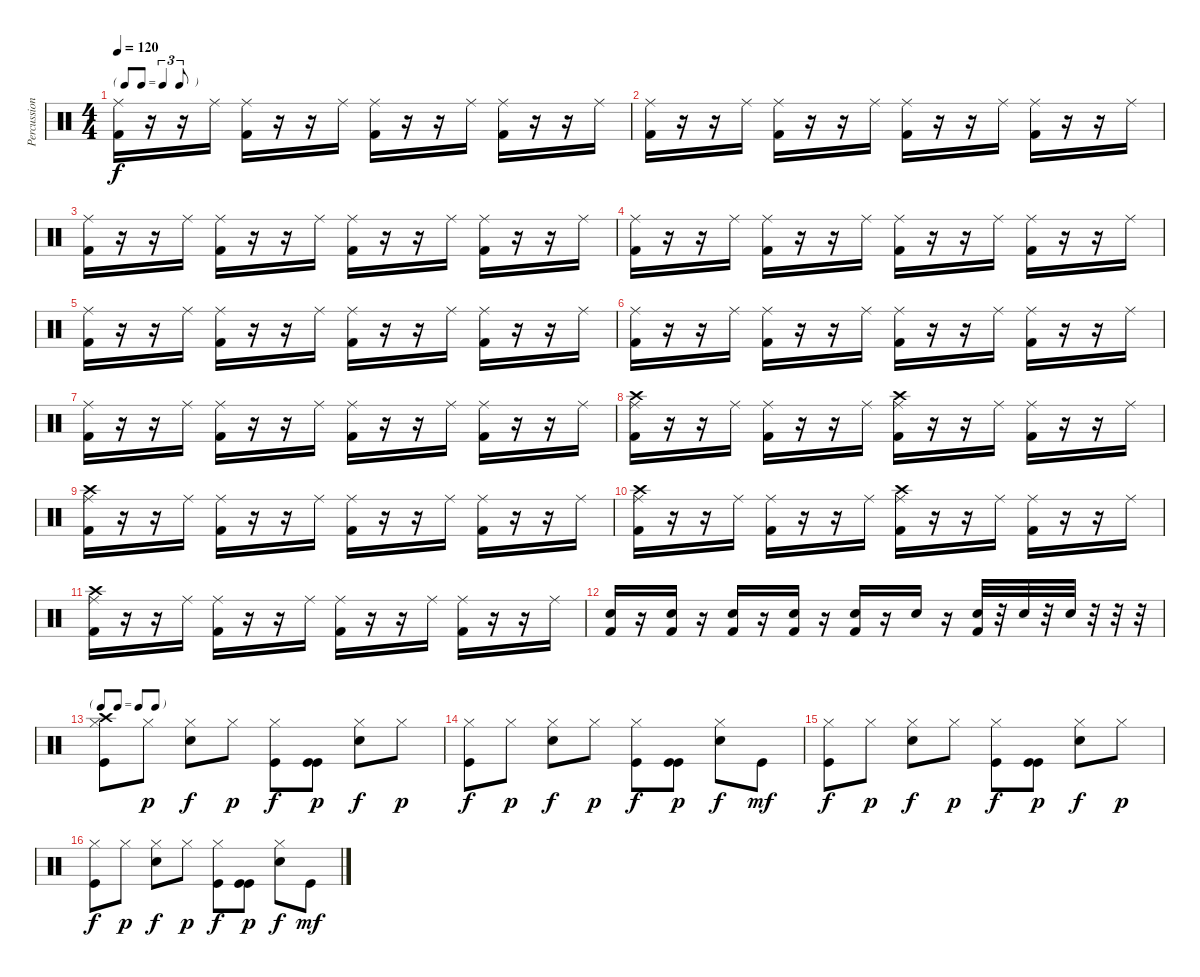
\track ("Percussions" "Percussion") {instrument percussion}
\staff {score}
\articulation defaults
\ts (4 4)
\tf triplet8th
\tempo 120
\clef neutral
\ks c
("Ride (middle)" "Kick (hit) 2").16{dy f} r.16 r.16 "Ride (middle)".16 ("Ride (middle)" "Kick (hit) 2").16 r.16 r.16 "Ride (middle)".16 ("Ride (middle)" "Kick (hit) 2").16 r.16 r.16 "Ride (middle)".16 ("Ride (middle)" "Kick (hit) 2").16 r.16 r.16 "Ride (middle)".16 |
("Ride (middle)" "Kick (hit) 2").16 r.16 r.16 "Ride (middle)".16 ("Ride (middle)" "Kick (hit) 2").16 r.16 r.16 "Ride (middle)".16 ("Ride (middle)" "Kick (hit) 2").16 r.16 r.16 "Ride (middle)".16 ("Ride (middle)" "Kick (hit) 2").16 r.16 r.16 "Ride (middle)".16 |
("Ride (middle)" "Kick (hit) 2").16 r.16 r.16 "Ride (middle)".16 ("Ride (middle)" "Kick (hit) 2").16 r.16 r.16 "Ride (middle)".16 ("Ride (middle)" "Kick (hit) 2").16 r.16 r.16 "Ride (middle)".16 ("Ride (middle)" "Kick (hit) 2").16 r.16 r.16 "Ride (middle)".16 |
("Ride (middle)" "Kick (hit) 2").16 r.16 r.16 "Ride (middle)".16 ("Ride (middle)" "Kick (hit) 2").16 r.16 r.16 "Ride (middle)".16 ("Ride (middle)" "Kick (hit) 2").16 r.16 r.16 "Ride (middle)".16 ("Ride (middle)" "Kick (hit) 2").16 r.16 r.16 "Ride (middle)".16 |
("Ride (middle)" "Kick (hit) 2").16 r.16 r.16 "Ride (middle)".16 ("Ride (middle)" "Kick (hit) 2").16 r.16 r.16 "Ride (middle)".16 ("Ride (middle)" "Kick (hit) 2").16 r.16 r.16 "Ride (middle)".16 ("Ride (middle)" "Kick (hit) 2").16 r.16 r.16 "Ride (middle)".16 |
("Ride (middle)" "Kick (hit) 2").16 r.16 r.16 "Ride (middle)".16 ("Ride (middle)" "Kick (hit) 2").16 r.16 r.16 "Ride (middle)".16 ("Ride (middle)" "Kick (hit) 2").16 r.16 r.16 "Ride (middle)".16 ("Ride (middle)" "Kick (hit) 2").16 r.16 r.16 "Ride (middle)".16 |
("Ride (middle)" "Kick (hit) 2").16 r.16 r.16 "Ride (middle)".16 ("Ride (middle)" "Kick (hit) 2").16 r.16 r.16 "Ride (middle)".16 ("Ride (middle)" "Kick (hit) 2").16 r.16 r.16 "Ride (middle)".16 ("Ride (middle)" "Kick (hit) 2").16 r.16 r.16 "Ride (middle)".16 |
("Crash high (hit)" "Ride (middle)" "Kick (hit) 2").16 r.16 r.16 "Ride (middle)".16 ("Ride (middle)" "Kick (hit) 2").16 r.16 r.16 "Ride (middle)".16 ("Crash high (hit)" "Ride (middle)" "Kick (hit) 2").16 r.16 r.16 "Ride (middle)".16 ("Ride (middle)" "Kick (hit) 2").16 r.16 r.16 "Ride (middle)".16 |
("Crash high (hit)" "Ride (middle)" "Kick (hit) 2").16 r.16 r.16 "Ride (middle)".16 ("Ride (middle)" "Kick (hit) 2").16 r.16 r.16 "Ride (middle)".16 ("Ride (middle)" "Kick (hit) 2").16 r.16 r.16 "Ride (middle)".16 ("Ride (middle)" "Kick (hit) 2").16 r.16 r.16 "Ride (middle)".16 |
("Crash high (hit)" "Ride (middle)" "Kick (hit) 2").16 r.16 r.16 "Ride (middle)".16 ("Ride (middle)" "Kick (hit) 2").16 r.16 r.16 "Ride (middle)".16 ("Crash high (hit)" "Ride (middle)" "Kick (hit) 2").16 r.16 r.16 "Ride (middle)".16 ("Ride (middle)" "Kick (hit) 2").16 r.16 r.16 "Ride (middle)".16 |
("Crash high (hit)" "Ride (middle)" "Kick (hit) 2").16 r.16 r.16 "Ride (middle)".16 ("Ride (middle)" "Kick (hit) 2").16 r.16 r.16 "Ride (middle)".16 ("Ride (middle)" "Kick (hit) 2").16 r.16 r.16 "Ride (middle)".16 ("Ride (middle)" "Kick (hit) 2").16 r.16 r.16 "Ride (middle)".16 |
("Electric Snare (hit)" "Kick (hit) 2").16 r.16 ("Electric Snare (hit)" "Kick (hit) 2").16 r.16 ("Electric Snare (hit)" "Kick (hit) 2").16 r.16 ("Electric Snare (hit)" "Kick (hit) 2").16 r.16 ("Electric Snare (hit)" "Kick (hit) 2").16 r.16 "Electric Snare (hit)".16 r.16 ("Electric Snare (hit)" "Kick (hit) 2").32 r.32 "Electric Snare (hit)".32 r.32 "Electric Snare (hit)".32 r.32 r.32 r.32 |
\tf none
("Kick (hit)" "Hi-Hat (closed)" "Crash high (hit)").8 "Hi-Hat (closed)".8{dy p} ("Snare (hit) 2" "Hi-Hat (closed)").8{dy f} "Hi-Hat (closed)".8{dy p} ("Kick (hit)" "Hi-Hat (closed)").8{dy f} ("Kick (hit)" "Kick (hit)").8{dy p} ("Snare (hit) 2" "Hi-Hat (closed)").8{dy f} "Hi-Hat (closed)".8{dy p} |
("Kick (hit)" "Hi-Hat (closed)").8{dy f} "Hi-Hat (closed)".8{dy p} ("Snare (hit) 2" "Hi-Hat (closed)").8{dy f} "Hi-Hat (closed)".8{dy p} ("Kick (hit)" "Hi-Hat (closed)").8{dy f} ("Kick (hit)" "Kick (hit)").8{dy p} ("Snare (hit) 2" "Hi-Hat (closed)").8{dy f} "Kick (hit)".8{dy mf} |
("Kick (hit)" "Hi-Hat (closed)").8{dy f} "Hi-Hat (closed)".8{dy p} ("Snare (hit) 2" "Hi-Hat (closed)").8{dy f} "Hi-Hat (closed)".8{dy p} ("Kick (hit)" "Hi-Hat (closed)").8{dy f} ("Kick (hit)" "Kick (hit)").8{dy p} ("Snare (hit) 2" "Hi-Hat (closed)").8{dy f} "Hi-Hat (closed)".8{dy p} |
("Kick (hit)" "Hi-Hat (closed)").8{dy f} "Hi-Hat (closed)".8{dy p} ("Snare (hit) 2" "Hi-Hat (closed)").8{dy f} "Hi-Hat (closed)".8{dy p} ("Kick (hit)" "Hi-Hat (closed)").8{dy f} ("Kick (hit)" "Kick (hit)").8{dy p} ("Snare (hit) 2" "Hi-Hat (closed)").8{dy f} "Kick (hit)".8{dy mf}
